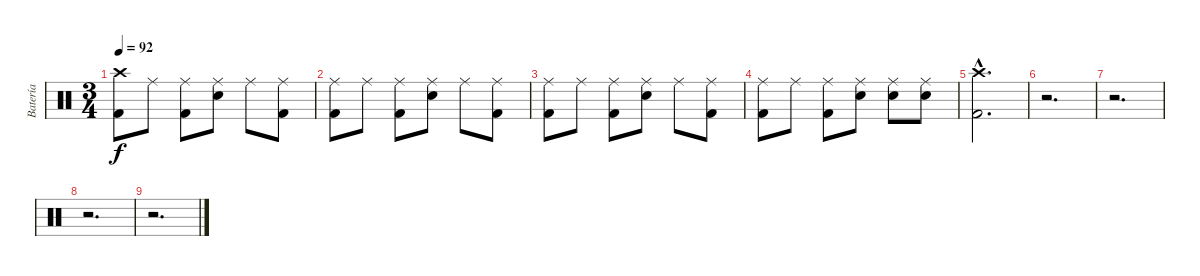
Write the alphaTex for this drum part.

\track ("Batería" "Batería") {instrument percussion}
\staff {score}
\articulation defaults
\ts (3 4)
\tempo 92
\clef neutral
\ks c
("Crash high (hit)" "Kick (hit) 2").8{dy f} "Ride (middle)".8 ("Ride (middle)" "Kick (hit) 2").8 ("Ride (middle)" "Snare (hit) 2").8 "Ride (middle)".8 ("Ride (middle)" "Kick (hit) 2").8 |
("Ride (middle)" "Kick (hit) 2").8 "Ride (middle)".8 ("Ride (middle)" "Kick (hit) 2").8 ("Ride (middle)" "Snare (hit) 2").8 "Ride (middle)".8 ("Ride (middle)" "Kick (hit) 2").8 |
("Ride (middle)" "Kick (hit) 2").8 "Ride (middle)".8 ("Ride (middle)" "Kick (hit) 2").8 ("Ride (middle)" "Snare (hit) 2").8 "Ride (middle)".8 ("Ride (middle)" "Kick (hit) 2").8 |
("Ride (middle)" "Kick (hit) 2").8 "Ride (middle)".8 ("Ride (middle)" "Kick (hit) 2").8 ("Ride (middle)" "Snare (hit) 2").8 ("Ride (middle)" "Snare (hit) 2").8 ("Ride (middle)" "Snare (hit) 2").8 |
("Crash high (hit)"{hac} "Kick (hit) 2"{hac}).2{d} |
r.2{d} |
r.2{d} |
r.2{d} |
r.2{d}
